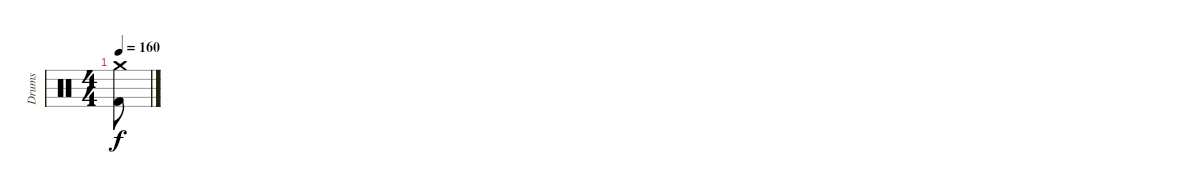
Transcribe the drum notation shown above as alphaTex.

\track ("Drums" "Drums") {instrument percussion}
\staff {score}
\articulation defaults
\ts (4 4)
\tempo 160
\clef neutral
\ks c
("Kick (hit) 2" "Crash medium (hit)").8{dy f}
